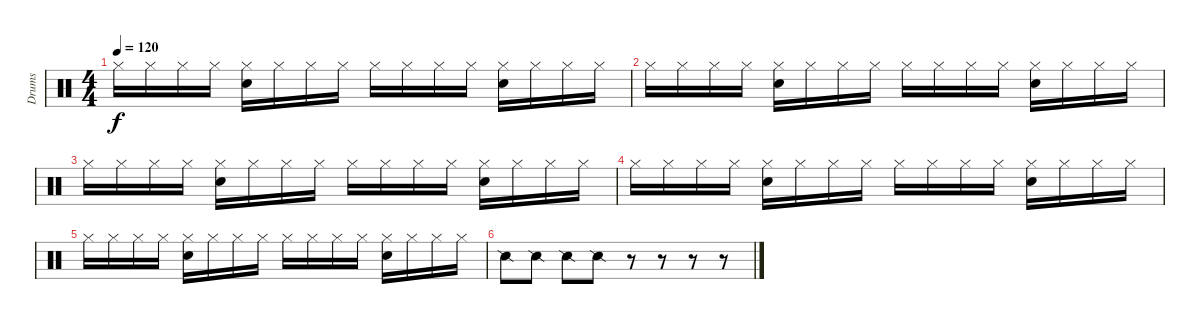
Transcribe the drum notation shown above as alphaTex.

\track ("Drums" "Drums") {instrument percussion}
\staff {score}
\articulation defaults
\ts (4 4)
\tempo 120
\clef neutral
\ks c "Hi-Hat (closed)".16{dy f} "Hi-Hat (closed)".16 "Hi-Hat (closed)".16 "Hi-Hat (closed)".16
("Hi-Hat (closed)" "Electric Snare (hit)").16 "Hi-Hat (closed)".16 "Hi-Hat (closed)".16 "Hi-Hat (closed)".16 "Hi-Hat (closed)".16 "Hi-Hat (closed)".16 "Hi-Hat (closed)".16 "Hi-Hat (closed)".16 ("Hi-Hat (closed)" "Electric Snare (hit)").16 "Hi-Hat (closed)".16 "Hi-Hat (closed)".16 "Hi-Hat (closed)".16 |
"Hi-Hat (closed)".16 "Hi-Hat (closed)".16 "Hi-Hat (closed)".16 "Hi-Hat (closed)".16 ("Hi-Hat (closed)" "Electric Snare (hit)").16 "Hi-Hat (closed)".16 "Hi-Hat (closed)".16 "Hi-Hat (closed)".16 "Hi-Hat (closed)".16 "Hi-Hat (closed)".16 "Hi-Hat (closed)".16 "Hi-Hat (closed)".16 ("Hi-Hat (closed)" "Electric Snare (hit)").16 "Hi-Hat (closed)".16 "Hi-Hat (closed)".16 "Hi-Hat (closed)".16 |
"Hi-Hat (closed)".16 "Hi-Hat (closed)".16 "Hi-Hat (closed)".16 "Hi-Hat (closed)".16 ("Hi-Hat (closed)" "Electric Snare (hit)").16 "Hi-Hat (closed)".16 "Hi-Hat (closed)".16 "Hi-Hat (closed)".16 "Hi-Hat (closed)".16 "Hi-Hat (closed)".16 "Hi-Hat (closed)".16 "Hi-Hat (closed)".16 ("Hi-Hat (closed)" "Electric Snare (hit)").16 "Hi-Hat (closed)".16 "Hi-Hat (closed)".16 "Hi-Hat (closed)".16 |
"Hi-Hat (closed)".16 "Hi-Hat (closed)".16 "Hi-Hat (closed)".16 "Hi-Hat (closed)".16 ("Hi-Hat (closed)" "Electric Snare (hit)").16 "Hi-Hat (closed)".16 "Hi-Hat (closed)".16 "Hi-Hat (closed)".16 "Hi-Hat (closed)".16 "Hi-Hat (closed)".16 "Hi-Hat (closed)".16 "Hi-Hat (closed)".16 ("Hi-Hat (closed)" "Electric Snare (hit)").16 "Hi-Hat (closed)".16 "Hi-Hat (closed)".16 "Hi-Hat (closed)".16 |
"Hi-Hat (closed)".16 "Hi-Hat (closed)".16 "Hi-Hat (closed)".16 "Hi-Hat (closed)".16 ("Hi-Hat (closed)" "Electric Snare (hit)").16 "Hi-Hat (closed)".16 "Hi-Hat (closed)".16 "Hi-Hat (closed)".16 "Hi-Hat (closed)".16 "Hi-Hat (closed)".16 "Hi-Hat (closed)".16 "Hi-Hat (closed)".16 ("Hi-Hat (closed)" "Electric Snare (hit)").16 "Hi-Hat (closed)".16 "Hi-Hat (closed)".16 "Hi-Hat (closed)".16 |
"Snare (side stick) 2".8 "Snare (side stick) 2".8 "Snare (side stick) 2".8 "Snare (side stick) 2".8 r.8 r.8 r.8 r.8
